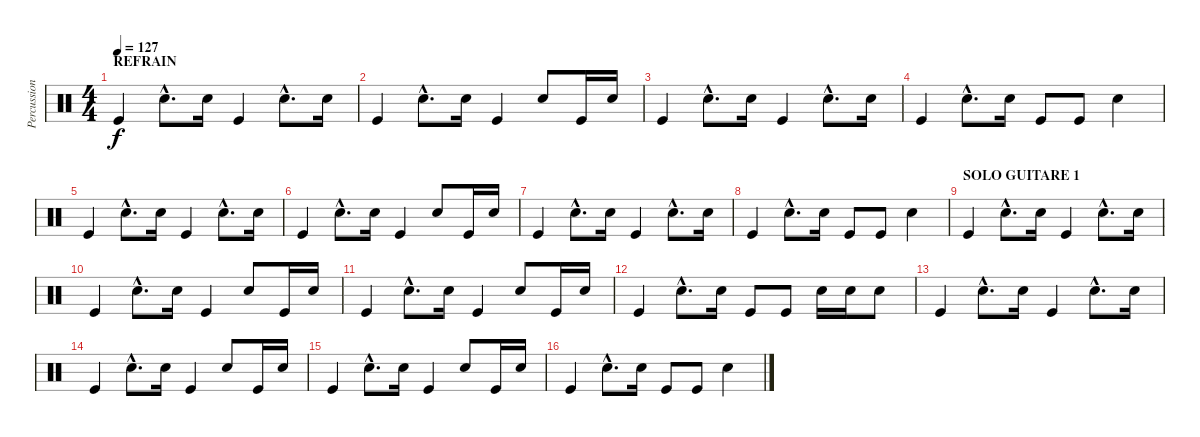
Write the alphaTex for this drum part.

\track ("Percussions" "Percussion") {instrument percussion}
\staff {score}
\articulation defaults
\ts (4 4)
\section ("" "REFRAIN")
\tempo 127
\clef neutral
\ks c "Kick (hit)".4{dy f} "Electric Snare (hit)"{hac}.8{d} "Electric Snare (hit)".16 "Kick (hit)".4 "Electric Snare (hit)"{hac}.8{d} "Electric Snare (hit)".16
|
"Kick (hit)".4 "Electric Snare (hit)"{hac}.8{d} "Electric Snare (hit)".16 "Kick (hit)".4 "Electric Snare (hit)".8 "Kick (hit)".16 "Electric Snare (hit)".16 |
"Kick (hit)".4 "Electric Snare (hit)"{hac}.8{d} "Electric Snare (hit)".16 "Kick (hit)".4 "Electric Snare (hit)"{hac}.8{d} "Electric Snare (hit)".16 |
"Kick (hit)".4 "Electric Snare (hit)"{hac}.8{d} "Electric Snare (hit)".16 "Kick (hit)".8 "Kick (hit)".8 "Electric Snare (hit)".4 |
"Kick (hit)".4 "Electric Snare (hit)"{hac}.8{d} "Electric Snare (hit)".16 "Kick (hit)".4 "Electric Snare (hit)"{hac}.8{d} "Electric Snare (hit)".16 |
"Kick (hit)".4 "Electric Snare (hit)"{hac}.8{d} "Electric Snare (hit)".16 "Kick (hit)".4 "Electric Snare (hit)".8 "Kick (hit)".16 "Electric Snare (hit)".16 |
"Kick (hit)".4 "Electric Snare (hit)"{hac}.8{d} "Electric Snare (hit)".16 "Kick (hit)".4 "Electric Snare (hit)"{hac}.8{d} "Electric Snare (hit)".16 |
"Kick (hit)".4 "Electric Snare (hit)"{hac}.8{d} "Electric Snare (hit)".16 "Kick (hit)".8 "Kick (hit)".8 "Electric Snare (hit)".4 |
\section ("" "SOLO GUITARE 1")
"Kick (hit)".4 "Electric Snare (hit)"{hac}.8{d} "Electric Snare (hit)".16 "Kick (hit)".4 "Electric Snare (hit)"{hac}.8{d} "Electric Snare (hit)".16 |
"Kick (hit)".4 "Electric Snare (hit)"{hac}.8{d} "Electric Snare (hit)".16 "Kick (hit)".4 "Electric Snare (hit)".8 "Kick (hit)".16 "Electric Snare (hit)".16 |
"Kick (hit)".4 "Electric Snare (hit)"{hac}.8{d} "Electric Snare (hit)".16 "Kick (hit)".4 "Electric Snare (hit)".8 "Kick (hit)".16 "Electric Snare (hit)".16 |
"Kick (hit)".4 "Electric Snare (hit)"{hac}.8{d} "Electric Snare (hit)".16 "Kick (hit)".8 "Kick (hit)".8 "Electric Snare (hit)".16 "Electric Snare (hit)".16 "Electric Snare (hit)".8 |
"Kick (hit)".4 "Electric Snare (hit)"{hac}.8{d} "Electric Snare (hit)".16 "Kick (hit)".4 "Electric Snare (hit)"{hac}.8{d} "Electric Snare (hit)".16 |
"Kick (hit)".4 "Electric Snare (hit)"{hac}.8{d} "Electric Snare (hit)".16 "Kick (hit)".4 "Electric Snare (hit)".8 "Kick (hit)".16 "Electric Snare (hit)".16 |
"Kick (hit)".4 "Electric Snare (hit)"{hac}.8{d} "Electric Snare (hit)".16 "Kick (hit)".4 "Electric Snare (hit)".8 "Kick (hit)".16 "Electric Snare (hit)".16 |
"Kick (hit)".4 "Electric Snare (hit)"{hac}.8{d} "Electric Snare (hit)".16 "Kick (hit)".8 "Kick (hit)".8 "Electric Snare (hit)".4
